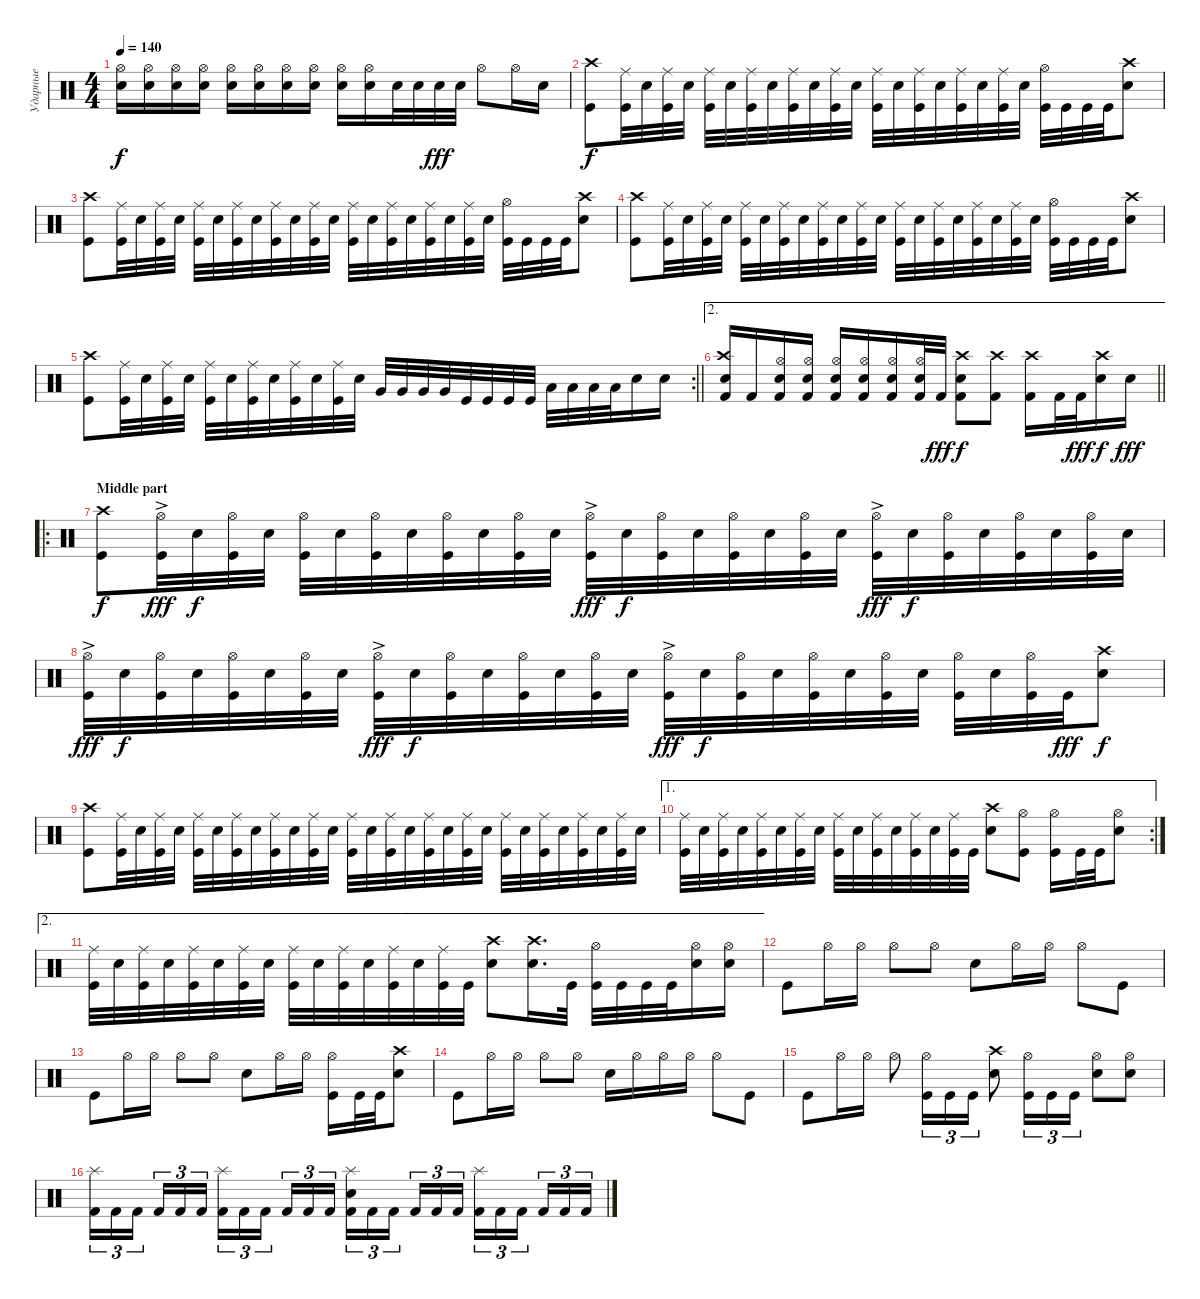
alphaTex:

\track ("Ударные" "Ударные") {instrument percussion}
\staff {score}
\articulation defaults
\ts (4 4)
\tempo 140
\clef neutral
\ks c
("Snare (hit) 2" "Hi-Hat (open)").16{dy f} ("Snare (hit) 2" "Hi-Hat (open)").16 ("Snare (hit) 2" "Hi-Hat (open)").16 ("Snare (hit) 2" "Hi-Hat (open)").16 ("Snare (hit) 2" "Hi-Hat (open)").16 ("Snare (hit) 2" "Hi-Hat (open)").16 ("Snare (hit) 2" "Hi-Hat (open)").16 ("Snare (hit) 2" "Hi-Hat (open)").16 ("Snare (hit) 2" "Hi-Hat (open)").16 ("Snare (hit) 2" "Hi-Hat (open)").16 "Snare (hit) 2".32 "Snare (hit) 2".32 "Snare (hit) 2".32{dy fff} "Snare (hit) 2".32 "Hi-Hat (open)".8 "Hi-Hat (open)".16 "Snare (hit) 2".16 |
("Crash high (hit)" "Kick (hit)").8{dy f} ("Ride (middle)" "Kick (hit)").32 "Snare (hit) 2".32 ("Ride (middle)" "Kick (hit)").32 "Snare (hit) 2".32 ("Ride (middle)" "Kick (hit)").32 "Snare (hit) 2".32 ("Ride (middle)" "Kick (hit)").32 "Snare (hit) 2".32 ("Ride (middle)" "Kick (hit)").32 "Snare (hit) 2".32 ("Ride (middle)" "Kick (hit)").32 "Snare (hit) 2".32 ("Ride (middle)" "Kick (hit)").32 "Snare (hit) 2".32 ("Ride (middle)" "Kick (hit)").32 "Snare (hit) 2".32 ("Ride (middle)" "Kick (hit)").32 "Snare (hit) 2".32 ("Ride (middle)" "Kick (hit)").32 "Snare (hit) 2".32 ("Kick (hit)" "Hi-Hat (open)").32 "Kick (hit)".32 "Kick (hit)".32 "Kick (hit)".32 ("Snare (hit) 2" "Crash high (hit)").8 |
("Crash high (hit)" "Kick (hit)").8 ("Ride (middle)" "Kick (hit)").32 "Snare (hit) 2".32 ("Ride (middle)" "Kick (hit)").32 "Snare (hit) 2".32 ("Ride (middle)" "Kick (hit)").32 "Snare (hit) 2".32 ("Ride (middle)" "Kick (hit)").32 "Snare (hit) 2".32 ("Ride (middle)" "Kick (hit)").32 "Snare (hit) 2".32 ("Ride (middle)" "Kick (hit)").32 "Snare (hit) 2".32 ("Ride (middle)" "Kick (hit)").32 "Snare (hit) 2".32 ("Ride (middle)" "Kick (hit)").32 "Snare (hit) 2".32 ("Ride (middle)" "Kick (hit)").32 "Snare (hit) 2".32 ("Ride (middle)" "Kick (hit)").32 "Snare (hit) 2".32 ("Kick (hit)" "Hi-Hat (open)").32 "Kick (hit)".32 "Kick (hit)".32 "Kick (hit)".32 ("Snare (hit) 2" "Crash high (hit)").8 |
("Crash high (hit)" "Kick (hit)").8 ("Ride (middle)" "Kick (hit)").32 "Snare (hit) 2".32 ("Ride (middle)" "Kick (hit)").32 "Snare (hit) 2".32 ("Ride (middle)" "Kick (hit)").32 "Snare (hit) 2".32 ("Ride (middle)" "Kick (hit)").32 "Snare (hit) 2".32 ("Ride (middle)" "Kick (hit)").32 "Snare (hit) 2".32 ("Ride (middle)" "Kick (hit)").32 "Snare (hit) 2".32 ("Ride (middle)" "Kick (hit)").32 "Snare (hit) 2".32 ("Ride (middle)" "Kick (hit)").32 "Snare (hit) 2".32 ("Ride (middle)" "Kick (hit)").32 "Snare (hit) 2".32 ("Ride (middle)" "Kick (hit)").32 "Snare (hit) 2".32 ("Kick (hit)" "Hi-Hat (open)").32 "Kick (hit)".32 "Kick (hit)".32 "Kick (hit)".32 ("Snare (hit) 2" "Crash high (hit)").8 |
\rc 2
\barLineRight lightlight
("Crash high (hit)" "Kick (hit)").8 ("Ride (middle)" "Kick (hit)").32 "Snare (hit) 2".32 ("Ride (middle)" "Kick (hit)").32 "Snare (hit) 2".32 ("Ride (middle)" "Kick (hit)").32 "Snare (hit) 2".32 ("Ride (middle)" "Kick (hit)").32 "Snare (hit) 2".32 ("Ride (middle)" "Kick (hit)").32 "Snare (hit) 2".32 ("Ride (middle)" "Kick (hit)").32 "Snare (hit) 2".32 "Very Low Tom (hit)".32 "Very Low Tom (hit)".32 "Very Low Tom (hit)".32 "Very Low Tom (hit)".32 "Kick (hit)".32 "Kick (hit)".32 "Kick (hit)".32 "Kick (hit)".32 "Low Floor Tom (hit)".32 "Low Floor Tom (hit)".32 "Low Floor Tom (hit)".32 "Low Floor Tom (hit)".32 "Snare (hit) 2".16 "Snare (hit) 2".16 |
\ae 2
\barLineRight lightlight
("Snare (hit) 2" "Crash high (hit)" "Kick (hit) 2").16 "Kick (hit) 2".16 ("Snare (hit) 2" "Hi-Hat (open)" "Kick (hit) 2").16 ("Snare (hit) 2" "Hi-Hat (open)" "Kick (hit) 2").16 ("Snare (hit) 2" "Hi-Hat (open)" "Kick (hit) 2").16 ("Snare (hit) 2" "Hi-Hat (open)" "Kick (hit) 2").16 ("Snare (hit) 2" "Hi-Hat (open)" "Kick (hit) 2").16 ("Snare (hit) 2" "Hi-Hat (open)" "Kick (hit) 2").32 "Kick (hit) 2".32{dy fff} ("Snare (hit) 2" "Crash high (hit)" "Kick (hit) 2").8{dy f} ("Crash high (hit)" "Kick (hit) 2").8 ("Crash high (hit)" "Kick (hit) 2").16 "Kick (hit) 2".32 "Kick (hit) 2".32{dy fff} ("Snare (hit) 2" "Crash high (hit)").16{dy f} "Snare (hit) 2".16{dy fff} |
\ro
\section ("" "Middle part")
("Crash high (hit)" "Kick (hit)").8{dy f} ("Hi-Hat (open)"{ac} "Kick (hit)").32{dy fff} "Snare (hit) 2".32{dy f} ("Hi-Hat (open)" "Kick (hit)").32 "Snare (hit) 2".32 ("Hi-Hat (open)" "Kick (hit)").32 "Snare (hit) 2".32 ("Hi-Hat (open)" "Kick (hit)").32 "Snare (hit) 2".32 ("Hi-Hat (open)" "Kick (hit)").32 "Snare (hit) 2".32 ("Hi-Hat (open)" "Kick (hit)").32 "Snare (hit) 2".32 ("Hi-Hat (open)"{ac} "Kick (hit)").32{dy fff} "Snare (hit) 2".32{dy f} ("Hi-Hat (open)" "Kick (hit)").32 "Snare (hit) 2".32 ("Hi-Hat (open)" "Kick (hit)").32 "Snare (hit) 2".32 ("Hi-Hat (open)" "Kick (hit)").32 "Snare (hit) 2".32 ("Hi-Hat (open)"{ac} "Kick (hit)").32{dy fff} "Snare (hit) 2".32{dy f} ("Hi-Hat (open)" "Kick (hit)").32 "Snare (hit) 2".32 ("Hi-Hat (open)" "Kick (hit)").32 "Snare (hit) 2".32 ("Hi-Hat (open)" "Kick (hit)").32 "Snare (hit) 2".32 |
("Hi-Hat (open)"{ac} "Kick (hit)").32{dy fff} "Snare (hit) 2".32{dy f} ("Hi-Hat (open)" "Kick (hit)").32 "Snare (hit) 2".32 ("Hi-Hat (open)" "Kick (hit)").32 "Snare (hit) 2".32 ("Hi-Hat (open)" "Kick (hit)").32 "Snare (hit) 2".32 ("Hi-Hat (open)"{ac} "Kick (hit)").32{dy fff} "Snare (hit) 2".32{dy f} ("Hi-Hat (open)" "Kick (hit)").32 "Snare (hit) 2".32 ("Hi-Hat (open)" "Kick (hit)").32 "Snare (hit) 2".32 ("Hi-Hat (open)" "Kick (hit)").32 "Snare (hit) 2".32 ("Hi-Hat (open)"{ac} "Kick (hit)").32{dy fff} "Snare (hit) 2".32{dy f} ("Hi-Hat (open)" "Kick (hit)").32 "Snare (hit) 2".32 ("Hi-Hat (open)" "Kick (hit)").32 "Snare (hit) 2".32 ("Hi-Hat (open)" "Kick (hit)").32 "Snare (hit) 2".32 ("Hi-Hat (open)" "Kick (hit)").32 "Snare (hit) 2".32 ("Hi-Hat (open)" "Kick (hit)").32 "Kick (hit)".32{dy fff} ("Crash high (hit)" "Snare (hit) 2").8{dy f} |
("Crash high (hit)" "Kick (hit)").8 ("Ride (middle)" "Kick (hit)").32 "Snare (hit) 2".32 ("Ride (middle)" "Kick (hit)").32 "Snare (hit) 2".32 ("Ride (middle)" "Kick (hit)").32 "Snare (hit) 2".32 ("Ride (middle)" "Kick (hit)").32 "Snare (hit) 2".32 ("Ride (middle)" "Kick (hit)").32 "Snare (hit) 2".32 ("Ride (middle)" "Kick (hit)").32 "Snare (hit) 2".32 ("Ride (middle)" "Kick (hit)").32 "Snare (hit) 2".32 ("Ride (middle)" "Kick (hit)").32 "Snare (hit) 2".32 ("Ride (middle)" "Kick (hit)").32 "Snare (hit) 2".32 ("Ride (middle)" "Kick (hit)").32 "Snare (hit) 2".32 ("Ride (middle)" "Kick (hit)").32 "Snare (hit) 2".32 ("Ride (middle)" "Kick (hit)").32 "Snare (hit) 2".32 ("Ride (middle)" "Kick (hit)").32 "Snare (hit) 2".32 ("Ride (middle)" "Kick (hit)").32 "Snare (hit) 2".32 |
\ae 1
\rc 2
("Ride (middle)" "Kick (hit)").32 "Snare (hit) 2".32 ("Ride (middle)" "Kick (hit)").32 "Snare (hit) 2".32 ("Ride (middle)" "Kick (hit)").32 "Snare (hit) 2".32 ("Ride (middle)" "Kick (hit)").32 "Snare (hit) 2".32 ("Ride (middle)" "Kick (hit)").32 "Snare (hit) 2".32 ("Ride (middle)" "Kick (hit)").32 "Snare (hit) 2".32 ("Ride (middle)" "Kick (hit)").32 "Snare (hit) 2".32 ("Ride (middle)" "Kick (hit)").32 "Kick (hit)".32 ("Crash high (hit)" "Snare (hit) 2").8 ("Hi-Hat (open)" "Kick (hit)").8 ("Hi-Hat (open)" "Kick (hit)").16 "Kick (hit)".32 "Kick (hit)".32 ("Hi-Hat (open)" "Snare (hit) 2").8 |
\ae 2
("Ride (middle)" "Kick (hit)").32 "Snare (hit) 2".32 ("Ride (middle)" "Kick (hit)").32 "Snare (hit) 2".32 ("Ride (middle)" "Kick (hit)").32 "Snare (hit) 2".32 ("Ride (middle)" "Kick (hit)").32 "Snare (hit) 2".32 ("Ride (middle)" "Kick (hit)").32 "Snare (hit) 2".32 ("Ride (middle)" "Kick (hit)").32 "Snare (hit) 2".32 ("Ride (middle)" "Kick (hit)").32 "Snare (hit) 2".32 ("Ride (middle)" "Kick (hit)").32 "Kick (hit)".32 ("Crash high (hit)" "Snare (hit) 2").8 ("Crash high (hit)" "Snare (hit) 2").16{d} "Kick (hit)".32 ("Hi-Hat (open)" "Kick (hit)").32 "Kick (hit)".32 "Kick (hit)".32 "Kick (hit)".32 ("Hi-Hat (open)" "Snare (hit) 2").16 ("Hi-Hat (open)" "Snare (hit) 2").16 |
"Kick (hit)".8 "Hi-Hat (open)".16 "Hi-Hat (open)".16 "Hi-Hat (open)".8 "Hi-Hat (open)".8 "Snare (hit) 2".8 "Hi-Hat (open)".16 "Hi-Hat (open)".16 "Hi-Hat (open)".8 "Kick (hit)".8 |
"Kick (hit)".8 "Hi-Hat (open)".16 "Hi-Hat (open)".16 "Hi-Hat (open)".8 "Hi-Hat (open)".8 "Snare (hit) 2".8 "Hi-Hat (open)".16 "Hi-Hat (open)".16 ("Hi-Hat (open)" "Kick (hit)").16 "Kick (hit)".32 "Kick (hit)".32 ("Crash high (hit)" "Snare (hit) 2").8 |
"Kick (hit)".8 "Hi-Hat (open)".16 "Hi-Hat (open)".16 "Hi-Hat (open)".8 "Hi-Hat (open)".8 "Snare (hit) 2".16 "Hi-Hat (open)".16 "Hi-Hat (open)".16 "Hi-Hat (open)".16 "Hi-Hat (open)".8 "Kick (hit)".8 |
"Kick (hit)".8 "Hi-Hat (open)".16 "Hi-Hat (open)".16 "Hi-Hat (open)".8 ("Hi-Hat (open)" "Kick (hit)").16{tu (3 2)} "Kick (hit)".16{tu (3 2)} "Kick (hit)".16{tu (3 2)} ("Crash high (hit)" "Snare (hit) 2").8 ("Hi-Hat (open)" "Kick (hit)").16{tu (3 2)} "Kick (hit)".16{tu (3 2)} "Kick (hit)".16{tu (3 2)} ("Hi-Hat (open)" "Snare (hit) 2").8 ("Hi-Hat (open)" "Snare (hit) 2").8 |
("Splash (hit)" "Kick (hit) 2").16{tu (3 2)} "Kick (hit) 2".16{tu (3 2)} "Kick (hit) 2".16{tu (3 2) beam splitsecondary} "Kick (hit) 2".16{tu (3 2)} "Kick (hit) 2".16{tu (3 2)} "Kick (hit) 2".16{tu (3 2)} ("Splash (hit)" "Kick (hit) 2").16{tu (3 2)} "Kick (hit) 2".16{tu (3 2)} "Kick (hit) 2".16{tu (3 2) beam splitsecondary} "Kick (hit) 2".16{tu (3 2)} "Kick (hit) 2".16{tu (3 2)} "Kick (hit) 2".16{tu (3 2)} ("Splash (hit)" "Snare (hit) 2" "Kick (hit) 2").16{tu (3 2)} "Kick (hit) 2".16{tu (3 2)} "Kick (hit) 2".16{tu (3 2) beam splitsecondary} "Kick (hit) 2".16{tu (3 2)} "Kick (hit) 2".16{tu (3 2)} "Kick (hit) 2".16{tu (3 2)} ("Splash (hit)" "Kick (hit) 2").16{tu (3 2)} "Kick (hit) 2".16{tu (3 2)} "Kick (hit) 2".16{tu (3 2) beam splitsecondary} "Kick (hit) 2".16{tu (3 2)} "Kick (hit) 2".16{tu (3 2)} "Kick (hit) 2".16{tu (3 2)}
